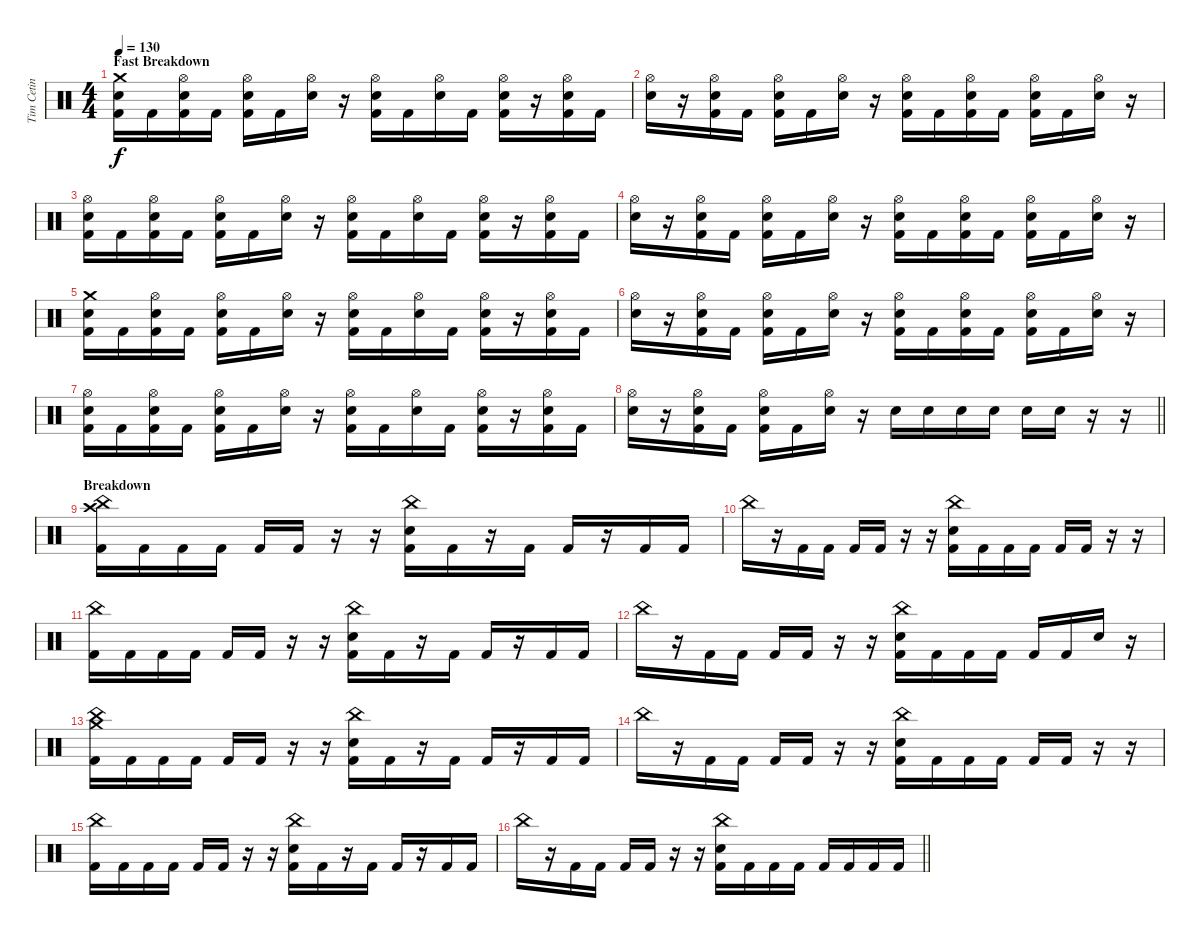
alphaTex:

\track ("Tim Cetin" "Tim Cetin") {instrument percussion}
\staff {score}
\articulation defaults
\ts (4 4)
\section ("" "Fast Breakdown")
\tempo 130
\clef neutral
\ks c
("Crash medium (hit)" "Electric Snare (hit)" "Kick (hit) 2").16{dy f} "Kick (hit) 2".16 ("Hi-Hat (open)" "Electric Snare (hit)" "Kick (hit) 2").16 "Kick (hit) 2".16 ("Hi-Hat (open)" "Electric Snare (hit)" "Kick (hit) 2").16 "Kick (hit) 2".16 ("Hi-Hat (open)" "Electric Snare (hit)").16 r.16 ("Hi-Hat (open)" "Electric Snare (hit)" "Kick (hit) 2").16 "Kick (hit) 2".16 ("Hi-Hat (open)" "Electric Snare (hit)").16 "Kick (hit) 2".16 ("Hi-Hat (open)" "Electric Snare (hit)" "Kick (hit) 2").16 r.16 ("Hi-Hat (open)" "Electric Snare (hit)" "Kick (hit) 2").16 "Kick (hit) 2".16 |
("Hi-Hat (open)" "Electric Snare (hit)").16 r.16 ("Hi-Hat (open)" "Electric Snare (hit)" "Kick (hit) 2").16 "Kick (hit) 2".16 ("Hi-Hat (open)" "Electric Snare (hit)" "Kick (hit) 2").16 "Kick (hit) 2".16 ("Hi-Hat (open)" "Electric Snare (hit)").16 r.16 ("Hi-Hat (open)" "Electric Snare (hit)" "Kick (hit) 2").16 "Kick (hit) 2".16 ("Hi-Hat (open)" "Electric Snare (hit)" "Kick (hit) 2").16 "Kick (hit) 2".16 ("Hi-Hat (open)" "Electric Snare (hit)" "Kick (hit) 2").16 "Kick (hit) 2".16 ("Hi-Hat (open)" "Electric Snare (hit)").16 r.16 |
("Hi-Hat (open)" "Electric Snare (hit)" "Kick (hit) 2").16 "Kick (hit) 2".16 ("Hi-Hat (open)" "Electric Snare (hit)" "Kick (hit) 2").16 "Kick (hit) 2".16 ("Hi-Hat (open)" "Electric Snare (hit)" "Kick (hit) 2").16 "Kick (hit) 2".16 ("Hi-Hat (open)" "Electric Snare (hit)").16 r.16 ("Hi-Hat (open)" "Electric Snare (hit)" "Kick (hit) 2").16 "Kick (hit) 2".16 ("Hi-Hat (open)" "Electric Snare (hit)").16 "Kick (hit) 2".16 ("Hi-Hat (open)" "Electric Snare (hit)" "Kick (hit) 2").16 r.16 ("Hi-Hat (open)" "Electric Snare (hit)" "Kick (hit) 2").16 "Kick (hit) 2".16 |
("Hi-Hat (open)" "Electric Snare (hit)").16 r.16 ("Hi-Hat (open)" "Electric Snare (hit)" "Kick (hit) 2").16 "Kick (hit) 2".16 ("Hi-Hat (open)" "Electric Snare (hit)" "Kick (hit) 2").16 "Kick (hit) 2".16 ("Hi-Hat (open)" "Electric Snare (hit)").16 r.16 ("Hi-Hat (open)" "Electric Snare (hit)" "Kick (hit) 2").16 "Kick (hit) 2".16 ("Hi-Hat (open)" "Electric Snare (hit)" "Kick (hit) 2").16 "Kick (hit) 2".16 ("Hi-Hat (open)" "Electric Snare (hit)" "Kick (hit) 2").16 "Kick (hit) 2".16 ("Hi-Hat (open)" "Electric Snare (hit)").16 r.16 |
("Crash medium (hit)" "Electric Snare (hit)" "Kick (hit) 2").16 "Kick (hit) 2".16 ("Hi-Hat (open)" "Electric Snare (hit)" "Kick (hit) 2").16 "Kick (hit) 2".16 ("Hi-Hat (open)" "Electric Snare (hit)" "Kick (hit) 2").16 "Kick (hit) 2".16 ("Hi-Hat (open)" "Electric Snare (hit)").16 r.16 ("Hi-Hat (open)" "Electric Snare (hit)" "Kick (hit) 2").16 "Kick (hit) 2".16 ("Hi-Hat (open)" "Electric Snare (hit)").16 "Kick (hit) 2".16 ("Hi-Hat (open)" "Electric Snare (hit)" "Kick (hit) 2").16 r.16 ("Hi-Hat (open)" "Electric Snare (hit)" "Kick (hit) 2").16 "Kick (hit) 2".16 |
("Hi-Hat (open)" "Electric Snare (hit)").16 r.16 ("Hi-Hat (open)" "Electric Snare (hit)" "Kick (hit) 2").16 "Kick (hit) 2".16 ("Hi-Hat (open)" "Electric Snare (hit)" "Kick (hit) 2").16 "Kick (hit) 2".16 ("Hi-Hat (open)" "Electric Snare (hit)").16 r.16 ("Hi-Hat (open)" "Electric Snare (hit)" "Kick (hit) 2").16 "Kick (hit) 2".16 ("Hi-Hat (open)" "Electric Snare (hit)" "Kick (hit) 2").16 "Kick (hit) 2".16 ("Hi-Hat (open)" "Electric Snare (hit)" "Kick (hit) 2").16 "Kick (hit) 2".16 ("Hi-Hat (open)" "Electric Snare (hit)").16 r.16 |
("Hi-Hat (open)" "Electric Snare (hit)" "Kick (hit) 2").16 "Kick (hit) 2".16 ("Hi-Hat (open)" "Electric Snare (hit)" "Kick (hit) 2").16 "Kick (hit) 2".16 ("Hi-Hat (open)" "Electric Snare (hit)" "Kick (hit) 2").16 "Kick (hit) 2".16 ("Hi-Hat (open)" "Electric Snare (hit)").16 r.16 ("Hi-Hat (open)" "Electric Snare (hit)" "Kick (hit) 2").16 "Kick (hit) 2".16 ("Hi-Hat (open)" "Electric Snare (hit)").16 "Kick (hit) 2".16 ("Hi-Hat (open)" "Electric Snare (hit)" "Kick (hit) 2").16 r.16 ("Hi-Hat (open)" "Electric Snare (hit)" "Kick (hit) 2").16 "Kick (hit) 2".16 |
\barLineRight lightlight
("Hi-Hat (open)" "Electric Snare (hit)").16 r.16 ("Hi-Hat (open)" "Electric Snare (hit)" "Kick (hit) 2").16 "Kick (hit) 2".16 ("Hi-Hat (open)" "Electric Snare (hit)" "Kick (hit) 2").16 "Kick (hit) 2".16 ("Hi-Hat (open)" "Electric Snare (hit)").16 r.16 "Electric Snare (hit)".16 "Electric Snare (hit)".16 "Electric Snare (hit)".16 "Electric Snare (hit)".16 "Electric Snare (hit)".16 "Electric Snare (hit)".16 r.16 r.16 |
\section ("" "Breakdown")
("Crash high (hit)" "China (hit)" "Kick (hit) 2").16 "Kick (hit) 2".16 "Kick (hit) 2".16 "Kick (hit) 2".16 "Kick (hit) 2".16 "Kick (hit) 2".16 r.16 r.16 ("China (hit)" "Electric Snare (hit)" "Kick (hit) 2").16 "Kick (hit) 2".16 r.16 "Kick (hit) 2".16 "Kick (hit) 2".16 r.16 "Kick (hit) 2".16 "Kick (hit) 2".16 |
"China (hit)".16 r.16 "Kick (hit) 2".16 "Kick (hit) 2".16 "Kick (hit) 2".16 "Kick (hit) 2".16 r.16 r.16 ("China (hit)" "Electric Snare (hit)" "Kick (hit) 2").16 "Kick (hit) 2".16 "Kick (hit) 2".16 "Kick (hit) 2".16 "Kick (hit) 2".16 "Kick (hit) 2".16 r.16 r.16 |
("China (hit)" "Kick (hit) 2").16 "Kick (hit) 2".16 "Kick (hit) 2".16 "Kick (hit) 2".16 "Kick (hit) 2".16 "Kick (hit) 2".16 r.16 r.16 ("China (hit)" "Electric Snare (hit)" "Kick (hit) 2").16 "Kick (hit) 2".16 r.16 "Kick (hit) 2".16 "Kick (hit) 2".16 r.16 "Kick (hit) 2".16 "Kick (hit) 2".16 |
"China (hit)".16 r.16 "Kick (hit) 2".16 "Kick (hit) 2".16 "Kick (hit) 2".16 "Kick (hit) 2".16 r.16 r.16 ("China (hit)" "Electric Snare (hit)" "Kick (hit) 2").16 "Kick (hit) 2".16 "Kick (hit) 2".16 "Kick (hit) 2".16 "Kick (hit) 2".16 "Kick (hit) 2".16 "Snare (hit) 2".16 r.16 |
("Crash medium (hit)" "China (hit)" "Kick (hit) 2").16 "Kick (hit) 2".16 "Kick (hit) 2".16 "Kick (hit) 2".16 "Kick (hit) 2".16 "Kick (hit) 2".16 r.16 r.16 ("China (hit)" "Electric Snare (hit)" "Kick (hit) 2").16 "Kick (hit) 2".16 r.16 "Kick (hit) 2".16 "Kick (hit) 2".16 r.16 "Kick (hit) 2".16 "Kick (hit) 2".16 |
"China (hit)".16 r.16 "Kick (hit) 2".16 "Kick (hit) 2".16 "Kick (hit) 2".16 "Kick (hit) 2".16 r.16 r.16 ("China (hit)" "Electric Snare (hit)" "Kick (hit) 2").16 "Kick (hit) 2".16 "Kick (hit) 2".16 "Kick (hit) 2".16 "Kick (hit) 2".16 "Kick (hit) 2".16 r.16 r.16 |
("China (hit)" "Kick (hit) 2").16 "Kick (hit) 2".16 "Kick (hit) 2".16 "Kick (hit) 2".16 "Kick (hit) 2".16 "Kick (hit) 2".16 r.16 r.16 ("China (hit)" "Electric Snare (hit)" "Kick (hit) 2").16 "Kick (hit) 2".16 r.16 "Kick (hit) 2".16 "Kick (hit) 2".16 r.16 "Kick (hit) 2".16 "Kick (hit) 2".16 |
\barLineRight lightlight "China (hit)".16
r.16 "Kick (hit) 2".16 "Kick (hit) 2".16 "Kick (hit) 2".16 "Kick (hit) 2".16 r.16 r.16 ("China (hit)" "Electric Snare (hit)" "Kick (hit) 2").16 "Kick (hit) 2".16 "Kick (hit) 2".16 "Kick (hit) 2".16 "Kick (hit) 2".16 "Kick (hit) 2".16 "Kick (hit) 2".16 "Kick (hit) 2".16
